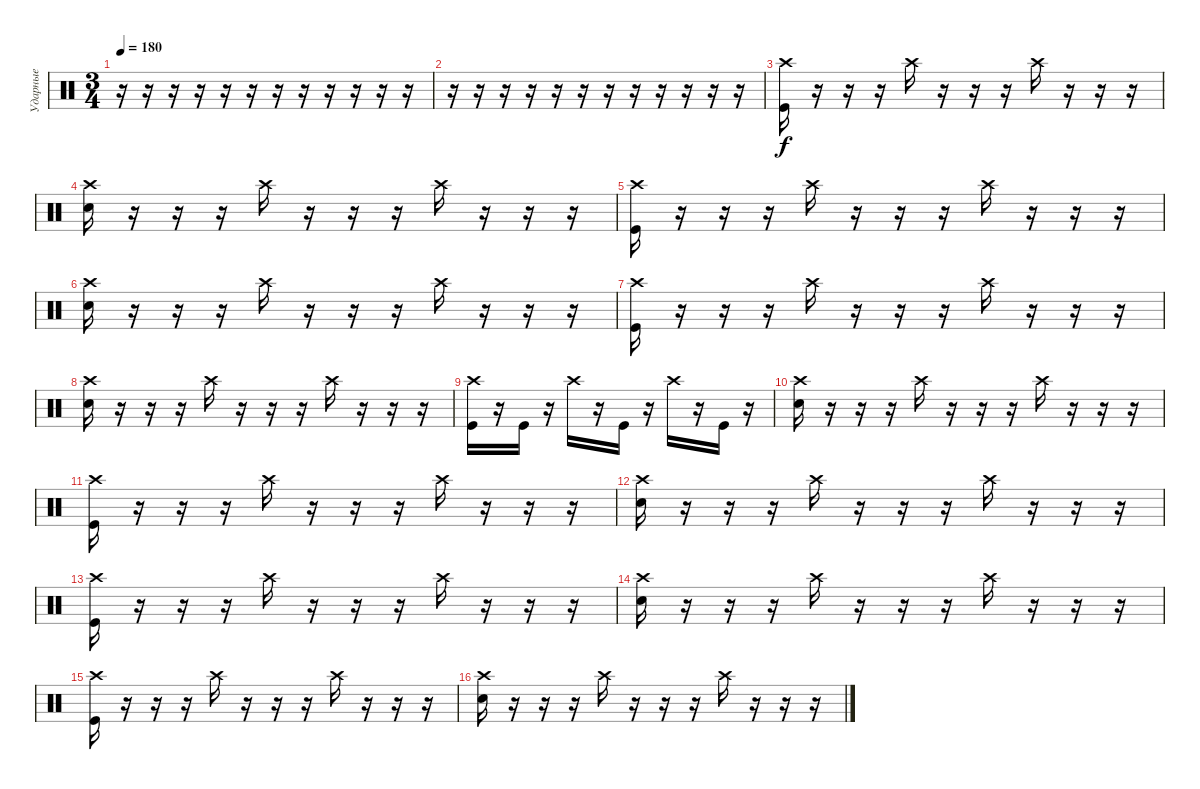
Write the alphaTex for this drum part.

\track ("Ударные" "Ударные") {instrument percussion}
\staff {score}
\articulation defaults
\ts (3 4)
\tempo 180
\clef neutral
\ks c
r.16{dy f} r.16 r.16 r.16 r.16 r.16 r.16 r.16 r.16 r.16 r.16 r.16 |
r.16 r.16 r.16 r.16 r.16 r.16 r.16 r.16 r.16 r.16 r.16 r.16 |
("Crash high (hit)" "Kick (hit)").16 r.16 r.16 r.16 "Crash high (hit)".16 r.16 r.16 r.16 "Crash high (hit)".16 r.16 r.16 r.16 |
("Crash high (hit)" "Electric Snare (hit)").16 r.16 r.16 r.16 "Crash high (hit)".16 r.16 r.16 r.16 "Crash high (hit)".16 r.16 r.16 r.16 |
("Crash high (hit)" "Kick (hit)").16 r.16 r.16 r.16 "Crash high (hit)".16 r.16 r.16 r.16 "Crash high (hit)".16 r.16 r.16 r.16 |
("Crash high (hit)" "Electric Snare (hit)").16 r.16 r.16 r.16 "Crash high (hit)".16 r.16 r.16 r.16 "Crash high (hit)".16 r.16 r.16 r.16 |
("Crash high (hit)" "Kick (hit)").16 r.16 r.16 r.16 "Crash high (hit)".16 r.16 r.16 r.16 "Crash high (hit)".16 r.16 r.16 r.16 |
("Crash high (hit)" "Electric Snare (hit)").16 r.16 r.16 r.16 "Crash high (hit)".16 r.16 r.16 r.16 "Crash high (hit)".16 r.16 r.16 r.16 |
("Crash high (hit)" "Kick (hit)").16 r.16 "Kick (hit)".16 r.16 "Crash high (hit)".16 r.16 "Kick (hit)".16 r.16 "Crash high (hit)".16 r.16 "Kick (hit)".16 r.16 |
("Crash high (hit)" "Electric Snare (hit)").16 r.16 r.16 r.16 "Crash high (hit)".16 r.16 r.16 r.16 "Crash high (hit)".16 r.16 r.16 r.16 |
("Crash high (hit)" "Kick (hit)").16 r.16 r.16 r.16 "Crash high (hit)".16 r.16 r.16 r.16 "Crash high (hit)".16 r.16 r.16 r.16 |
("Crash high (hit)" "Electric Snare (hit)").16 r.16 r.16 r.16 "Crash high (hit)".16 r.16 r.16 r.16 "Crash high (hit)".16 r.16 r.16 r.16 |
("Crash high (hit)" "Kick (hit)").16 r.16 r.16 r.16 "Crash high (hit)".16 r.16 r.16 r.16 "Crash high (hit)".16 r.16 r.16 r.16 |
("Crash high (hit)" "Electric Snare (hit)").16 r.16 r.16 r.16 "Crash high (hit)".16 r.16 r.16 r.16 "Crash high (hit)".16 r.16 r.16 r.16 |
("Crash high (hit)" "Kick (hit)").16 r.16 r.16 r.16 "Crash high (hit)".16 r.16 r.16 r.16 "Crash high (hit)".16 r.16 r.16 r.16 |
("Crash high (hit)" "Electric Snare (hit)").16 r.16 r.16 r.16 "Crash high (hit)".16 r.16 r.16 r.16 "Crash high (hit)".16 r.16 r.16 r.16
